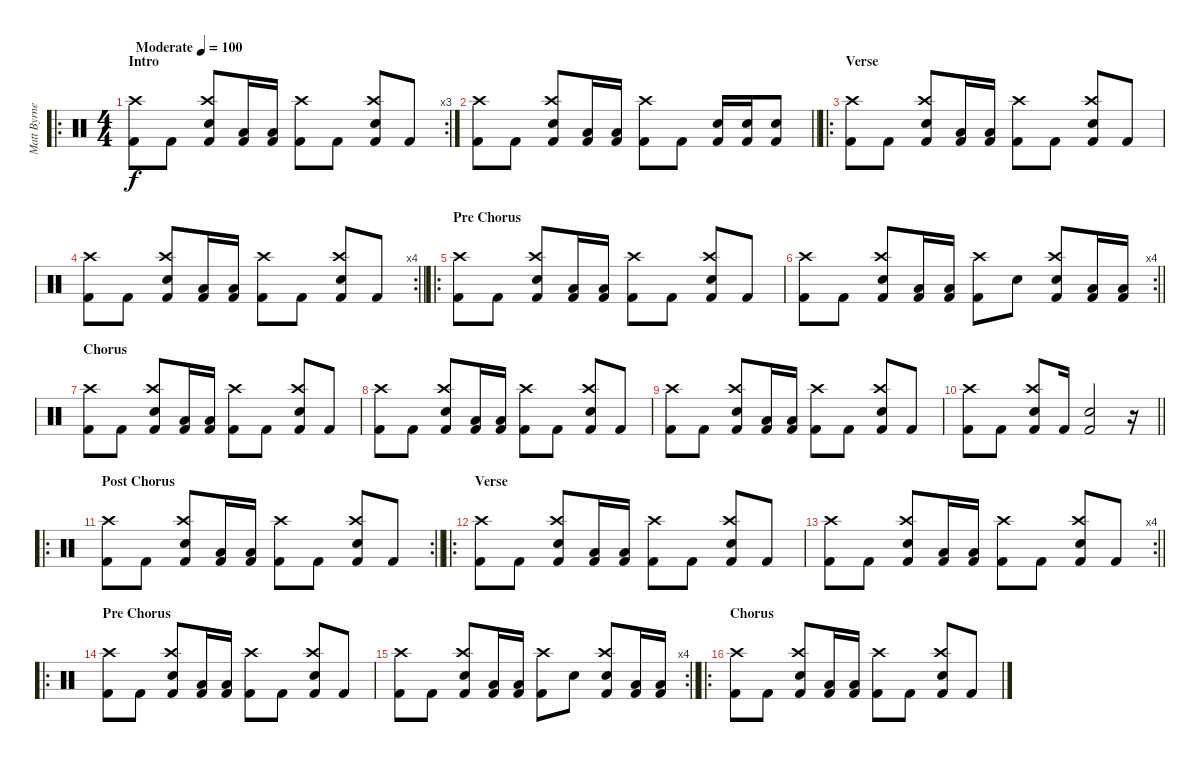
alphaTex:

\track ("Matt Byrne" "Matt Byrne") {instrument percussion}
\staff {score}
\articulation defaults
\ro
\rc 3
\ts (4 4)
\section ("" "Intro")
\tempo (100 "Moderate")
\clef neutral
\ks c
("Kick (hit) 2" "Crash high (hit)").8{dy f} "Kick (hit) 2".8 ("Crash high (hit)" "Electric Snare (hit)" "Kick (hit) 2").8 ("Low Floor Tom (hit)" "Kick (hit) 2").16 ("Low Floor Tom (hit)" "Kick (hit) 2").16 ("Kick (hit) 2" "Crash high (hit)").8 "Kick (hit) 2".8 ("Crash high (hit)" "Electric Snare (hit)" "Kick (hit) 2").8 "Kick (hit) 2".8 |
\barLineRight lightlight
("Kick (hit) 2" "Crash high (hit)").8 "Kick (hit) 2".8 ("Crash high (hit)" "Electric Snare (hit)" "Kick (hit) 2").8 ("Low Floor Tom (hit)" "Kick (hit) 2").16 ("Low Floor Tom (hit)" "Kick (hit) 2").16 ("Kick (hit) 2" "Crash high (hit)").8 "Kick (hit) 2".8 ("Electric Snare (hit)" "Kick (hit) 2").16 ("Electric Snare (hit)" "Kick (hit) 2").16 ("Electric Snare (hit)" "Kick (hit) 2").8 |
\ro
\section ("" "Verse")
("Kick (hit) 2" "Crash high (hit)").8 "Kick (hit) 2".8 ("Crash high (hit)" "Electric Snare (hit)" "Kick (hit) 2").8 ("Low Floor Tom (hit)" "Kick (hit) 2").16 ("Low Floor Tom (hit)" "Kick (hit) 2").16 ("Kick (hit) 2" "Crash high (hit)").8 "Kick (hit) 2".8 ("Crash high (hit)" "Electric Snare (hit)" "Kick (hit) 2").8 "Kick (hit) 2".8 |
\rc 4
\barLineRight lightlight
("Kick (hit) 2" "Crash high (hit)").8 "Kick (hit) 2".8 ("Crash high (hit)" "Electric Snare (hit)" "Kick (hit) 2").8 ("Low Floor Tom (hit)" "Kick (hit) 2").16 ("Low Floor Tom (hit)" "Kick (hit) 2").16 ("Kick (hit) 2" "Crash high (hit)").8 "Kick (hit) 2".8 ("Crash high (hit)" "Electric Snare (hit)" "Kick (hit) 2").8 "Kick (hit) 2".8 |
\ro
\section ("" "Pre Chorus")
("Kick (hit) 2" "Crash high (hit)").8 "Kick (hit) 2".8 ("Crash high (hit)" "Electric Snare (hit)" "Kick (hit) 2").8 ("Low Floor Tom (hit)" "Kick (hit) 2").16 ("Low Floor Tom (hit)" "Kick (hit) 2").16 ("Kick (hit) 2" "Crash high (hit)").8 "Kick (hit) 2".8 ("Crash high (hit)" "Electric Snare (hit)" "Kick (hit) 2").8 "Kick (hit) 2".8 |
\rc 4
\barLineRight lightlight
("Kick (hit) 2" "Crash high (hit)").8 "Kick (hit) 2".8 ("Crash high (hit)" "Electric Snare (hit)" "Kick (hit) 2").8 ("Low Floor Tom (hit)" "Kick (hit) 2").16 ("Low Floor Tom (hit)" "Kick (hit) 2").16 ("Kick (hit) 2" "Crash high (hit)").8 "Electric Snare (hit)".8 ("Crash high (hit)" "Electric Snare (hit)" "Kick (hit) 2").8 ("Low Floor Tom (hit)" "Kick (hit) 2").16 ("Low Floor Tom (hit)" "Kick (hit) 2").16 |
\section ("" "Chorus")
("Kick (hit) 2" "Crash high (hit)").8 "Kick (hit) 2".8 ("Crash high (hit)" "Electric Snare (hit)" "Kick (hit) 2").8 ("Low Floor Tom (hit)" "Kick (hit) 2").16 ("Low Floor Tom (hit)" "Kick (hit) 2").16 ("Kick (hit) 2" "Crash high (hit)").8 "Kick (hit) 2".8 ("Crash high (hit)" "Electric Snare (hit)" "Kick (hit) 2").8 "Kick (hit) 2".8 |
("Kick (hit) 2" "Crash high (hit)").8 "Kick (hit) 2".8 ("Crash high (hit)" "Electric Snare (hit)" "Kick (hit) 2").8 ("Low Floor Tom (hit)" "Kick (hit) 2").16 ("Low Floor Tom (hit)" "Kick (hit) 2").16 ("Kick (hit) 2" "Crash high (hit)").8 "Kick (hit) 2".8 ("Crash high (hit)" "Electric Snare (hit)" "Kick (hit) 2").8 "Kick (hit) 2".8 |
("Kick (hit) 2" "Crash high (hit)").8 "Kick (hit) 2".8 ("Crash high (hit)" "Electric Snare (hit)" "Kick (hit) 2").8 ("Low Floor Tom (hit)" "Kick (hit) 2").16 ("Low Floor Tom (hit)" "Kick (hit) 2").16 ("Kick (hit) 2" "Crash high (hit)").8 "Kick (hit) 2".8 ("Crash high (hit)" "Electric Snare (hit)" "Kick (hit) 2").8 "Kick (hit) 2".8 |
\barLineRight lightlight
("Kick (hit) 2" "Crash high (hit)").8 "Kick (hit) 2".8 ("Crash high (hit)" "Electric Snare (hit)" "Kick (hit) 2").8 "Kick (hit) 2".16 ("Electric Snare (hit)" "Kick (hit) 2").2 r.16 |
\ro
\rc 2
\section ("" "Post Chorus")
\barLineRight lightlight
("Kick (hit) 2" "Crash high (hit)").8 "Kick (hit) 2".8 ("Crash high (hit)" "Electric Snare (hit)" "Kick (hit) 2").8 ("Low Floor Tom (hit)" "Kick (hit) 2").16 ("Low Floor Tom (hit)" "Kick (hit) 2").16 ("Kick (hit) 2" "Crash high (hit)").8 "Kick (hit) 2".8 ("Crash high (hit)" "Electric Snare (hit)" "Kick (hit) 2").8 "Kick (hit) 2".8 |
\ro
\section ("" "Verse")
("Kick (hit) 2" "Crash high (hit)").8 "Kick (hit) 2".8 ("Crash high (hit)" "Electric Snare (hit)" "Kick (hit) 2").8 ("Low Floor Tom (hit)" "Kick (hit) 2").16 ("Low Floor Tom (hit)" "Kick (hit) 2").16 ("Kick (hit) 2" "Crash high (hit)").8 "Kick (hit) 2".8 ("Crash high (hit)" "Electric Snare (hit)" "Kick (hit) 2").8 "Kick (hit) 2".8 |
\rc 4
\barLineRight lightlight
("Kick (hit) 2" "Crash high (hit)").8 "Kick (hit) 2".8 ("Crash high (hit)" "Electric Snare (hit)" "Kick (hit) 2").8 ("Low Floor Tom (hit)" "Kick (hit) 2").16 ("Low Floor Tom (hit)" "Kick (hit) 2").16 ("Kick (hit) 2" "Crash high (hit)").8 "Kick (hit) 2".8 ("Crash high (hit)" "Electric Snare (hit)" "Kick (hit) 2").8 "Kick (hit) 2".8 |
\ro
\section ("" "Pre Chorus")
("Kick (hit) 2" "Crash high (hit)").8 "Kick (hit) 2".8 ("Crash high (hit)" "Electric Snare (hit)" "Kick (hit) 2").8 ("Low Floor Tom (hit)" "Kick (hit) 2").16 ("Low Floor Tom (hit)" "Kick (hit) 2").16 ("Kick (hit) 2" "Crash high (hit)").8 "Kick (hit) 2".8 ("Crash high (hit)" "Electric Snare (hit)" "Kick (hit) 2").8 "Kick (hit) 2".8 |
\rc 4
\barLineRight lightlight
("Kick (hit) 2" "Crash high (hit)").8 "Kick (hit) 2".8 ("Crash high (hit)" "Electric Snare (hit)" "Kick (hit) 2").8 ("Low Floor Tom (hit)" "Kick (hit) 2").16 ("Low Floor Tom (hit)" "Kick (hit) 2").16 ("Kick (hit) 2" "Crash high (hit)").8 "Electric Snare (hit)".8 ("Crash high (hit)" "Electric Snare (hit)" "Kick (hit) 2").8 ("Low Floor Tom (hit)" "Kick (hit) 2").16 ("Low Floor Tom (hit)" "Kick (hit) 2").16 |
\ro
\section ("" "Chorus")
("Kick (hit) 2" "Crash high (hit)").8 "Kick (hit) 2".8 ("Crash high (hit)" "Electric Snare (hit)" "Kick (hit) 2").8 ("Low Floor Tom (hit)" "Kick (hit) 2").16 ("Low Floor Tom (hit)" "Kick (hit) 2").16 ("Kick (hit) 2" "Crash high (hit)").8 "Kick (hit) 2".8 ("Crash high (hit)" "Electric Snare (hit)" "Kick (hit) 2").8 "Kick (hit) 2".8
